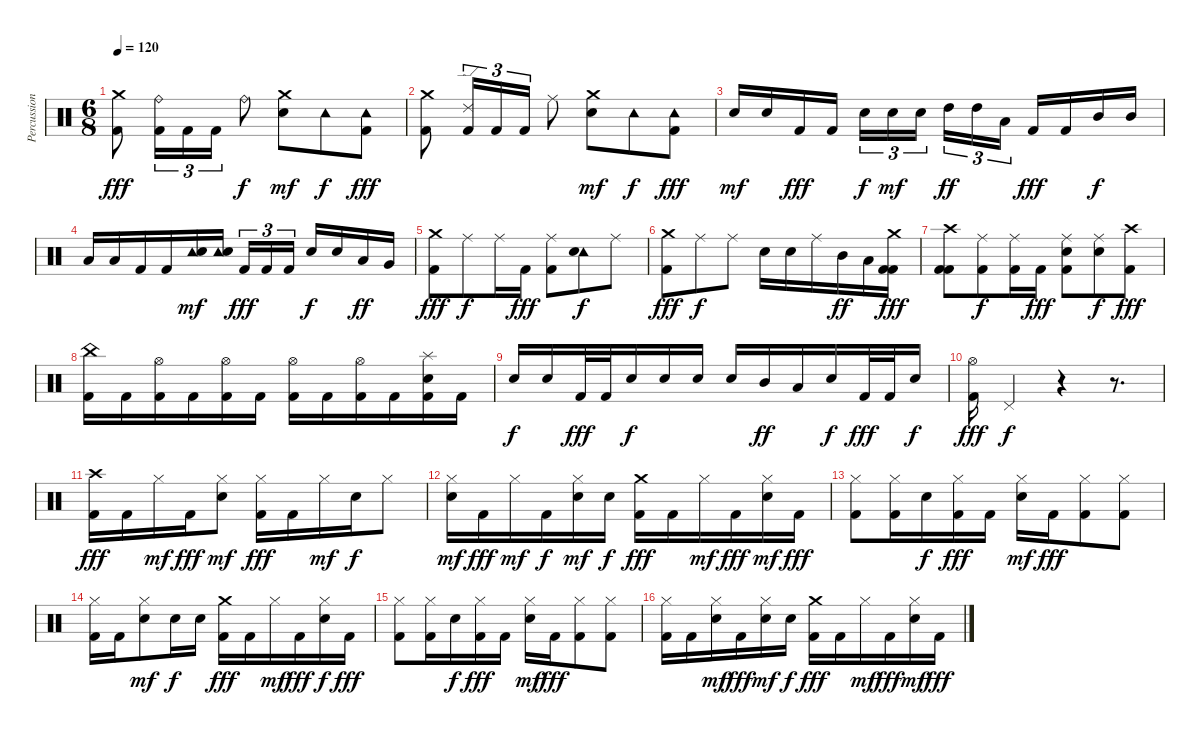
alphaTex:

\track ("Percussion" "Percussion") {instrument percussion}
\staff {score}
\articulation defaults
\ts (6 8)
\tempo 120
\clef neutral
\ks c
("Crash medium (hit)" "Kick (hit) 2").8{dy fff} ("Ride (bell)" "Kick (hit) 2").16{tu (3 2)} "Kick (hit) 2".16{tu (3 2)} "Kick (hit) 2".16{tu (3 2)} "Ride (bell)".8{dy f} ("Crash medium (hit)" "Electric Snare (hit)").8{dy mf} "Tambourine (hit)".8{dy f} ("Tambourine (hit)" "Kick (hit) 2").8{dy fff} |
("Crash medium (hit)" "Kick (hit) 2").8 ("Ride (edge) 2" "Kick (hit) 2").16{tu (3 2)} "Kick (hit) 2".16{tu (3 2)} "Kick (hit) 2".16{tu (3 2)} "Ride (middle)".8 ("Crash medium (hit)" "Electric Snare (hit)").8{dy mf} "Tambourine (hit)".8{dy f} ("Tambourine (hit)" "Kick (hit) 2").8{dy fff} |
"Electric Snare (hit)".16{dy mf} "Electric Snare (hit)".16 "Kick (hit) 2".16{dy fff} "Kick (hit) 2".16 "Electric Snare (hit)".16{tu (3 2) dy f} "Electric Snare (hit)".16{tu (3 2) dy mf} "Electric Snare (hit)".16{tu (3 2)} "High Tom (hit)".16{tu (3 2) dy ff} "High Tom (hit)".16{tu (3 2)} "Low Tom (hit)".16{tu (3 2)} "Kick (hit) 2".16{dy fff} "Kick (hit) 2".16 "Mid Tom (hit)".16{dy f} "Mid Tom (hit)".16 |
"Low Tom (hit)".16 "Low Tom (hit)".16 "Kick (hit) 2".16 "Kick (hit) 2".16 ("Tambourine (hit)" "Electric Snare (hit)").16{dy mf} ("Tambourine (hit)" "Electric Snare (hit)").16 "Kick (hit) 2".16{tu (3 2) dy fff} "Kick (hit) 2".16{tu (3 2)} "Kick (hit) 2".16{tu (3 2)} "Electric Snare (hit)".16{dy f} "Electric Snare (hit)".16 "Low Tom (hit)".16{dy ff} "Very Low Tom (hit)".16 |
("Crash medium (hit)" "Kick (hit) 2").8{dy fff} "Ride (middle)".8{dy f} "Ride (middle)".16 "Kick (hit) 2".16{dy fff} ("Ride (middle)" "Kick (hit) 2").8 ("Tambourine (hit)" "Electric Snare (hit)").8{dy f} "Ride (middle)".8 |
("Crash medium (hit)" "Kick (hit) 2").8{dy fff} "Ride (middle)".8{dy f} "Ride (middle)".8 "Electric Snare (hit)".16 "Electric Snare (hit)".16 "Ride (middle)".16 "Mid Tom (hit)".16{dy ff} "Low Tom (hit)".16 ("Crash medium (hit)" "Kick (hit) 2" "Kick (hit) 2").16{dy fff} |
("Crash high (hit)" "Kick (hit) 2" "Kick (hit) 2").8 ("Ride (middle)" "Kick (hit) 2").8{dy f} ("Ride (middle)" "Kick (hit) 2").16 "Kick (hit) 2".16{dy fff} ("Ride (middle)" "Electric Snare (hit)" "Kick (hit) 2").8 ("Ride (middle)" "Electric Snare (hit)").8{dy f} ("Crash high (hit)" "Kick (hit) 2").8{dy fff} |
("China (hit)" "Kick (hit) 2").16 "Kick (hit) 2".16 ("Hi-Hat (open)" "Kick (hit) 2").16 "Kick (hit) 2".16 ("Hi-Hat (open)" "Kick (hit) 2").16 "Kick (hit) 2".16 ("Hi-Hat (open)" "Kick (hit) 2").16 "Kick (hit) 2".16 ("Hi-Hat (open)" "Kick (hit) 2").16 "Kick (hit) 2".16 ("Splash (hit)" "Electric Snare (hit)" "Kick (hit) 2").16 "Kick (hit) 2".16 |
"Electric Snare (hit)".16{dy f} "Electric Snare (hit)".16 "Kick (hit) 2".32{dy fff} "Kick (hit) 2".32 "Electric Snare (hit)".16{dy f} "Electric Snare (hit)".16 "Electric Snare (hit)".16 "Electric Snare (hit)".16 "Mid Tom (hit)".16{dy ff} "Low Tom (hit)".16 "Electric Snare (hit)".16{dy f} "Kick (hit) 2".32{dy fff} "Kick (hit) 2".32 "Electric Snare (hit)".16{dy f} |
("Hi-Hat (open)" "Kick (hit) 2").16{dy fff} "Pedal Hi-Hat (hit)".4{dy f} r.4 r.8{d} |
("Crash high (hit)" "Kick (hit) 2").16{dy fff} "Kick (hit) 2".16 "Hi-Hat (closed)".16{dy mf} "Kick (hit) 2".16{dy fff} ("Hi-Hat (closed)" "Electric Snare (hit)").8{dy mf} ("Hi-Hat (closed)" "Kick (hit) 2").16{dy fff} "Kick (hit) 2".16 "Hi-Hat (closed)".16{dy mf} "Electric Snare (hit)".16{dy f} "Hi-Hat (closed)".8 |
("Hi-Hat (closed)" "Electric Snare (hit)").16{dy mf} "Kick (hit) 2".16{dy fff} "Hi-Hat (closed)".16{dy mf} "Kick (hit) 2".16{dy f} ("Hi-Hat (closed)" "Electric Snare (hit)").16{dy mf} "Electric Snare (hit)".16{dy f} ("Crash medium (hit)" "Kick (hit) 2").16{dy fff} "Kick (hit) 2".16 "Hi-Hat (closed)".16{dy mf} "Kick (hit) 2".16{dy fff} ("Hi-Hat (closed)" "Electric Snare (hit)").16{dy mf} "Kick (hit) 2".16{dy fff} |
("Hi-Hat (closed)" "Kick (hit) 2").8 ("Hi-Hat (closed)" "Kick (hit) 2").16 "Electric Snare (hit)".16{dy f} ("Hi-Hat (closed)" "Kick (hit) 2").16{dy fff} "Kick (hit) 2".16 ("Hi-Hat (closed)" "Electric Snare (hit)").16{dy mf} "Kick (hit) 2".16{dy fff} ("Hi-Hat (closed)" "Kick (hit) 2").8 ("Hi-Hat (closed)" "Kick (hit) 2").8 |
("Hi-Hat (closed)" "Kick (hit) 2").16 "Kick (hit) 2".16 ("Hi-Hat (closed)" "Electric Snare (hit)").8{dy mf} "Electric Snare (hit)".16{dy f} "Electric Snare (hit)".16 ("Crash medium (hit)" "Kick (hit) 2").16{dy fff} "Kick (hit) 2".16 "Hi-Hat (closed)".16{dy mf} "Kick (hit) 2".16{dy fff} ("Hi-Hat (closed)" "Electric Snare (hit)").16{dy f} "Kick (hit) 2".16{dy fff} |
("Hi-Hat (closed)" "Kick (hit) 2").8 ("Hi-Hat (closed)" "Kick (hit) 2").16 "Electric Snare (hit)".16{dy f} ("Hi-Hat (closed)" "Kick (hit) 2").16{dy fff} "Kick (hit) 2".16 ("Hi-Hat (closed)" "Electric Snare (hit)").16{dy mf} "Kick (hit) 2".16{dy fff} ("Hi-Hat (closed)" "Kick (hit) 2").8 ("Hi-Hat (closed)" "Kick (hit) 2").8 |
("Hi-Hat (closed)" "Kick (hit) 2").16 "Kick (hit) 2".16 ("Hi-Hat (closed)" "Electric Snare (hit)").16{dy mf} "Kick (hit) 2".16{dy fff} ("Hi-Hat (closed)" "Electric Snare (hit)").16{dy mf} "Electric Snare (hit)".16{dy f} ("Crash medium (hit)" "Kick (hit) 2").16{dy fff} "Kick (hit) 2".16 "Hi-Hat (closed)".16{dy mf} "Kick (hit) 2".16{dy fff} ("Hi-Hat (closed)" "Electric Snare (hit)").16{dy mf} "Kick (hit) 2".16{dy fff}
